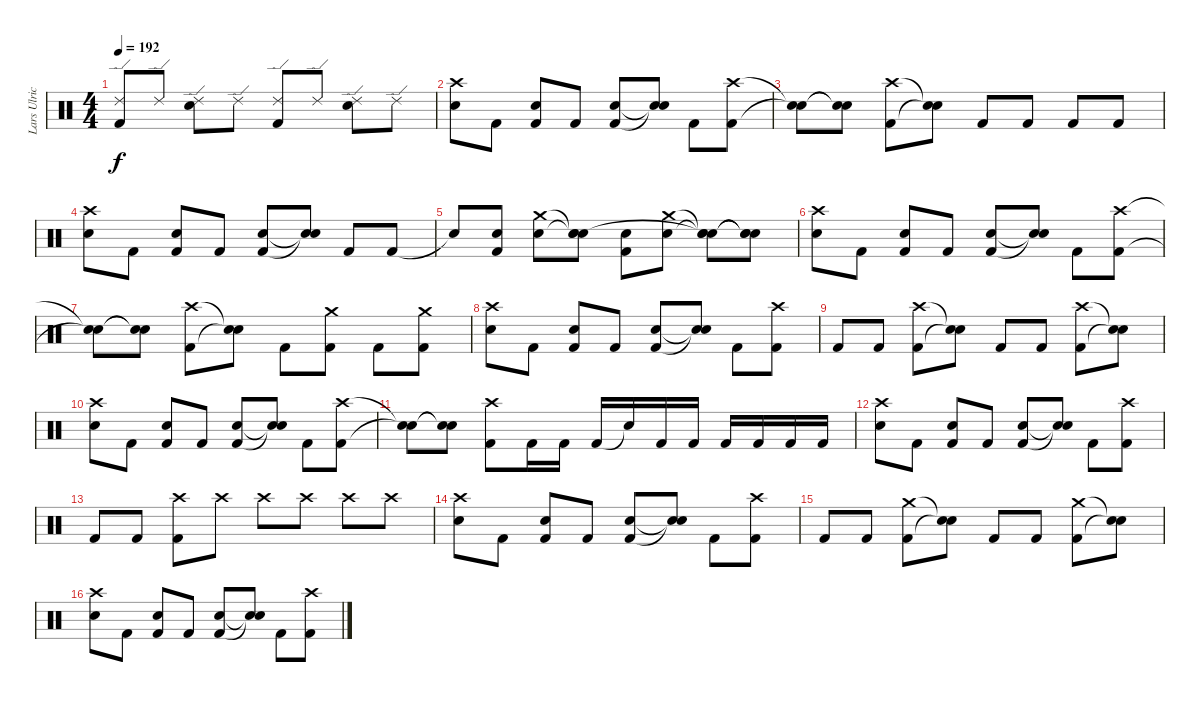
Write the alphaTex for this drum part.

\track ("Lars Ulrich" "Lars Ulric") {instrument percussion}
\staff {score}
\articulation defaults
\ts (4 4)
\tempo 192
\clef neutral
\ks c
("Ride (edge) 2" "Kick (hit) 2").8{dy f} "Ride (edge) 2".8 ("Ride (edge) 2" "Snare (hit) 2").8 "Ride (edge) 2".8 ("Ride (edge) 2" "Kick (hit) 2").8 "Ride (edge) 2".8 ("Ride (edge) 2" "Snare (hit) 2").8 "Ride (edge) 2".8 |
("Crash high (hit)" "Snare (hit) 2").8 "Kick (hit) 2".8 ("Kick (hit) 2" "Snare (hit) 2").8 "Kick (hit) 2".8 ("Kick (hit) 2" "Snare (hit) 2").8 ("Snare (hit)"{t} "Snare (hit)"{t}).8 "Kick (hit) 2".8 ("Crash high (hit)" "Kick (hit) 2").8 |
("Snare (hit)"{t} "Snare (hit)"{t}).8 ("Snare (hit)"{t} "Snare (hit)"{t}).8 ("Crash high (hit)" "Kick (hit) 2").8 ("Snare (hit)"{t} "Snare (hit)"{t}).8 "Kick (hit) 2".8 "Kick (hit) 2".8 "Kick (hit) 2".8 "Kick (hit) 2".8 |
("Crash high (hit)" "Snare (hit) 2").8 "Kick (hit) 2".8 ("Kick (hit) 2" "Snare (hit) 2").8 "Kick (hit) 2".8 ("Kick (hit) 2" "Snare (hit) 2").8 ("Snare (hit)"{t} "Snare (hit)"{t}).8 "Kick (hit) 2".8 "Kick (hit) 2".8 |
"Snare (hit)"{t}.8 ("Kick (hit) 2" "Snare (hit) 2").8 ("Crash medium (hit)" "Snare (hit) 2").8 ("Snare (hit)"{t} "Snare (hit)"{t} "Snare (hit)").8 ("Kick (hit) 2" "Snare (hit) 2").8 ("Crash medium (hit)" "Snare (hit) 2").8 ("Snare (hit)"{t} "Snare (hit)"{t} "Snare (hit)"{t}).8 ("Snare (hit)"{t} "Snare (hit)"{t} "Snare (hit)"{t}).8 |
("Crash high (hit)" "Snare (hit) 2").8 "Kick (hit) 2".8 ("Kick (hit) 2" "Snare (hit) 2").8 "Kick (hit) 2".8 ("Kick (hit) 2" "Snare (hit) 2").8 ("Snare (hit)"{t} "Snare (hit)"{t}).8 "Kick (hit) 2".8 ("Crash high (hit)" "Kick (hit) 2").8 |
("Snare (hit)"{t} "Snare (hit)"{t}).8 ("Snare (hit)"{t} "Snare (hit)"{t}).8 ("Crash high (hit)" "Kick (hit) 2").8 ("Snare (hit)"{t} "Snare (hit)"{t}).8 "Kick (hit) 2".8 ("Crash medium (hit)" "Kick (hit) 2").8 "Kick (hit) 2".8 ("Crash medium (hit)" "Kick (hit) 2").8 |
("Crash high (hit)" "Snare (hit) 2").8 "Kick (hit) 2".8 ("Kick (hit) 2" "Snare (hit) 2").8 "Kick (hit) 2".8 ("Kick (hit) 2" "Snare (hit) 2").8 ("Snare (hit)"{t} "Snare (hit)"{t}).8 "Kick (hit) 2".8 ("Crash high (hit)" "Kick (hit) 2").8 |
"Kick (hit) 2".8 "Kick (hit) 2".8 ("Crash high (hit)" "Kick (hit) 2").8 ("Snare (hit)"{t} "Snare (hit)"{t}).8 "Kick (hit) 2".8 "Kick (hit) 2".8 ("Crash high (hit)" "Kick (hit) 2").8 ("Snare (hit)"{t} "Snare (hit)"{t}).8 |
("Crash high (hit)" "Snare (hit) 2").8 "Kick (hit) 2".8 ("Kick (hit) 2" "Snare (hit) 2").8 "Kick (hit) 2".8 ("Kick (hit) 2" "Snare (hit) 2").8 ("Snare (hit)"{t} "Snare (hit)"{t}).8 "Kick (hit) 2".8 ("Crash high (hit)" "Kick (hit) 2").8 |
("Snare (hit)"{t} "Snare (hit)"{t}).8 ("Snare (hit)"{t} "Snare (hit)"{t}).8 ("Crash high (hit)" "Kick (hit) 2").8 "Kick (hit) 2".16 "Kick (hit) 2".16 "Kick (hit) 2".16 "Snare (hit)"{t}.16 "Kick (hit) 2".16 "Kick (hit) 2".16 "Kick (hit) 2".16 "Kick (hit) 2".16 "Kick (hit) 2".16 "Kick (hit) 2".16 |
("Crash high (hit)" "Snare (hit) 2").8 "Kick (hit) 2".8 ("Kick (hit) 2" "Snare (hit) 2").8 "Kick (hit) 2".8 ("Kick (hit) 2" "Snare (hit) 2").8 ("Snare (hit)"{t} "Snare (hit)"{t}).8 "Kick (hit) 2".8 ("Crash high (hit)" "Kick (hit) 2").8 |
"Kick (hit) 2".8 "Kick (hit) 2".8 ("Crash high (hit)" "Kick (hit) 2").8 "Crash high (hit)".8 "Crash high (hit)".8 "Crash high (hit)".8 "Crash high (hit)".8 "Crash high (hit)".8 |
("Crash high (hit)" "Snare (hit) 2").8 "Kick (hit) 2".8 ("Kick (hit) 2" "Snare (hit) 2").8 "Kick (hit) 2".8 ("Kick (hit) 2" "Snare (hit) 2").8 ("Snare (hit)"{t} "Snare (hit)"{t}).8 "Kick (hit) 2".8 ("Crash high (hit)" "Kick (hit) 2").8 |
"Kick (hit) 2".8 "Kick (hit) 2".8 ("Crash medium (hit)" "Kick (hit) 2").8 ("Snare (hit)"{t} "Snare (hit)"{t}).8 "Kick (hit) 2".8 "Kick (hit) 2".8 ("Crash medium (hit)" "Kick (hit) 2").8 ("Snare (hit)"{t} "Snare (hit)"{t}).8 |
("Crash high (hit)" "Snare (hit) 2").8 "Kick (hit) 2".8 ("Kick (hit) 2" "Snare (hit) 2").8 "Kick (hit) 2".8 ("Kick (hit) 2" "Snare (hit) 2").8 ("Snare (hit)"{t} "Snare (hit)"{t}).8 "Kick (hit) 2".8 ("Crash high (hit)" "Kick (hit) 2").8
